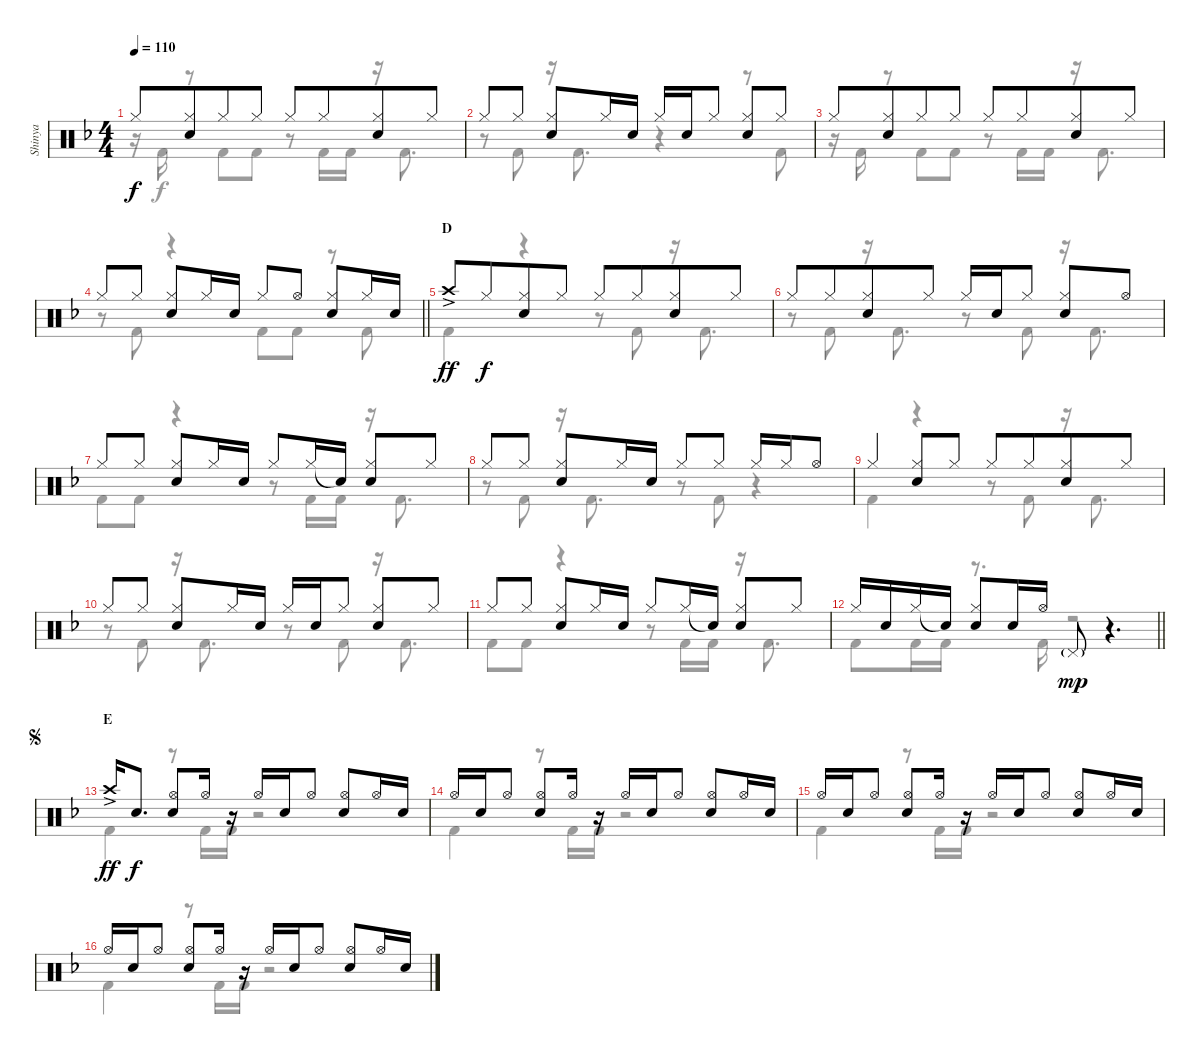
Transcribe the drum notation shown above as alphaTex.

\track ("Shinya" "Shinya") {instrument percussion}
\staff {score}
\articulation defaults
\voice
\ts (4 4)
\tempo 110
\clef neutral
\ks dminor "Hi-Hat (closed)".8{dy f}
("Hi-Hat (closed)" "Snare (hit) 2").8{beam merge} "Hi-Hat (closed)".8 "Hi-Hat (closed)".8 "Hi-Hat (closed)".8 "Hi-Hat (closed)".8{beam merge} ("Hi-Hat (closed)" "Snare (hit) 2").8 "Hi-Hat (closed)".8 |
"Hi-Hat (closed)".8 "Hi-Hat (closed)".8 ("Hi-Hat (closed)" "Snare (hit) 2").8 "Hi-Hat (closed)".16 "Snare (hit) 2".16 "Hi-Hat (closed)".16 "Snare (hit) 2".16 "Hi-Hat (closed)".8 ("Hi-Hat (closed)" "Snare (hit) 2").8 "Hi-Hat (closed)".8 |
"Hi-Hat (closed)".8 ("Hi-Hat (closed)" "Snare (hit) 2").8{beam merge} "Hi-Hat (closed)".8 "Hi-Hat (closed)".8 "Hi-Hat (closed)".8 "Hi-Hat (closed)".8{beam merge} ("Hi-Hat (closed)" "Snare (hit) 2").8 "Hi-Hat (closed)".8 |
\barLineRight lightlight "Hi-Hat (closed)".8 "Hi-Hat (closed)".8
("Hi-Hat (closed)" "Snare (hit) 2").8 "Hi-Hat (closed)".16 "Snare (hit) 2".16 "Hi-Hat (closed)".8 "Hi-Hat (open)".8 ("Hi-Hat (closed)" "Snare (hit) 2").8 "Hi-Hat (closed)".16 "Snare (hit) 2".16 |
\section ("" "D")
"Crash high (hit)"{ac}.8{dy ff} "Hi-Hat (closed)".8{dy f beam merge} ("Hi-Hat (closed)" "Snare (hit) 2").8 "Hi-Hat (closed)".8 "Hi-Hat (closed)".8 "Hi-Hat (closed)".8{beam merge} ("Hi-Hat (closed)" "Snare (hit) 2").8 "Hi-Hat (closed)".8 |
"Hi-Hat (closed)".8 "Hi-Hat (closed)".8{beam merge} ("Hi-Hat (closed)" "Snare (hit) 2").8 "Hi-Hat (closed)".8 "Hi-Hat (closed)".16 "Snare (hit) 2".16 "Hi-Hat (closed)".8 ("Hi-Hat (closed)" "Snare (hit) 2").8 "Hi-Hat (open)".8 |
"Hi-Hat (closed)".8 "Hi-Hat (closed)".8 ("Hi-Hat (closed)" "Snare (hit) 2").8 "Hi-Hat (closed)".16 "Snare (hit) 2".16 "Hi-Hat (closed)".8 "Hi-Hat (closed)".16 "Snare (hit)"{t}.16 ("Hi-Hat (closed)" "Snare (hit) 2").8 "Hi-Hat (closed)".8 |
"Hi-Hat (closed)".8 "Hi-Hat (closed)".8 ("Hi-Hat (closed)" "Snare (hit) 2").8 "Hi-Hat (closed)".16 "Snare (hit) 2".16 "Hi-Hat (closed)".8 "Hi-Hat (closed)".8 "Hi-Hat (closed)".16 "Hi-Hat (closed)".16 "Hi-Hat (open)".8 |
"Hi-Hat (closed)".4 ("Hi-Hat (closed)" "Snare (hit) 2").8 "Hi-Hat (closed)".8 "Hi-Hat (closed)".8 "Hi-Hat (closed)".8{beam merge} ("Hi-Hat (closed)" "Snare (hit) 2").8 "Hi-Hat (closed)".8 |
"Hi-Hat (closed)".8 "Hi-Hat (closed)".8 ("Hi-Hat (closed)" "Snare (hit) 2").8 "Hi-Hat (closed)".16 "Snare (hit) 2".16 "Hi-Hat (closed)".16 "Snare (hit) 2".16 "Hi-Hat (closed)".8 ("Hi-Hat (closed)" "Snare (hit) 2").8 "Hi-Hat (closed)".8 |
"Hi-Hat (closed)".8 "Hi-Hat (closed)".8 ("Hi-Hat (closed)" "Snare (hit) 2").8 "Hi-Hat (closed)".16 "Snare (hit) 2".16 "Hi-Hat (closed)".8 "Hi-Hat (closed)".16 "Snare (hit)"{t}.16 ("Hi-Hat (closed)" "Snare (hit) 2").8 "Hi-Hat (closed)".8 |
\barLineRight lightlight "Hi-Hat (closed)".16 "Snare (hit) 2".16 "Hi-Hat (closed)".16 "Snare (hit)"{t}.16
("Hi-Hat (closed)" "Snare (hit) 2").8 "Snare (hit) 2".16 "Hi-Hat (open)".16 "Pedal Hi-Hat (hit)"{g}.8{dy mp} r.4{d} |
\section ("" "E")
\jump segno "Crash high (hit)"{ac}.16{dy ff} "Snare (hit) 2".8{d dy f}
("Hi-Hat (open)" "Snare (hit) 2").8 "Hi-Hat (open)".16 r.16 "Hi-Hat (open)".16 "Snare (hit) 2".16 "Hi-Hat (open)".8 ("Hi-Hat (open)" "Snare (hit) 2").8 "Hi-Hat (open)".16 "Snare (hit) 2".16 |
"Hi-Hat (open)".16 "Snare (hit) 2".16 "Hi-Hat (open)".8 ("Hi-Hat (open)" "Snare (hit) 2").8 "Hi-Hat (open)".16 r.16 "Hi-Hat (open)".16 "Snare (hit) 2".16 "Hi-Hat (open)".8 ("Hi-Hat (open)" "Snare (hit) 2").8 "Hi-Hat (open)".16 "Snare (hit) 2".16 |
"Hi-Hat (open)".16 "Snare (hit) 2".16 "Hi-Hat (open)".8 ("Hi-Hat (open)" "Snare (hit) 2").8 "Hi-Hat (open)".16 r.16 "Hi-Hat (open)".16 "Snare (hit) 2".16 "Hi-Hat (open)".8 ("Hi-Hat (open)" "Snare (hit) 2").8 "Hi-Hat (open)".16 "Snare (hit) 2".16 |
"Hi-Hat (open)".16 "Snare (hit) 2".16 "Hi-Hat (open)".8 ("Hi-Hat (open)" "Snare (hit) 2").8 "Hi-Hat (open)".16 r.16 "Hi-Hat (open)".16 "Snare (hit) 2".16 "Hi-Hat (open)".8 ("Hi-Hat (open)" "Snare (hit) 2").8 "Hi-Hat (open)".16 "Snare (hit) 2".16
\voice
\clef neutral
\ottava regular
\simile none
\ks dminor
r.16{dy f} "Kick (hit) 2".16 r.8 "Kick (hit) 2".8 "Kick (hit) 2".8 r.8 "Kick (hit) 2".16 "Kick (hit) 2".16 r.16 "Kick (hit) 2".8{d} |
r.8 "Kick (hit) 2".8 r.16 "Kick (hit) 2".8{d} r.4 r.8 "Kick (hit) 2".8 |
r.16 "Kick (hit) 2".16 r.8 "Kick (hit) 2".8 "Kick (hit) 2".8 r.8 "Kick (hit) 2".16 "Kick (hit) 2".16 r.16 "Kick (hit) 2".8{d} |
\barLineRight lightlight
r.8 "Kick (hit) 2".8 r.4 "Kick (hit) 2".8 "Kick (hit) 2".8 r.8 "Kick (hit) 2".8 |
"Kick (hit) 2".4 r.4 r.8 "Kick (hit) 2".8 r.16 "Kick (hit) 2".8{d} |
r.8 "Kick (hit) 2".8 r.16 "Kick (hit) 2".8{d} r.8 "Kick (hit) 2".8 r.16 "Kick (hit) 2".8{d} |
"Kick (hit) 2".8 "Kick (hit) 2".8 r.4 r.8 "Kick (hit) 2".16 "Kick (hit) 2".16 r.16 "Kick (hit) 2".8{d} |
r.8 "Kick (hit) 2".8 r.16 "Kick (hit) 2".8{d} r.8 "Kick (hit) 2".8 r.4 |
"Kick (hit) 2".4 r.4 r.8 "Kick (hit) 2".8 r.16 "Kick (hit) 2".8{d} |
r.8 "Kick (hit) 2".8 r.16 "Kick (hit) 2".8{d} r.8 "Kick (hit) 2".8 r.16 "Kick (hit) 2".8{d} |
"Kick (hit) 2".8 "Kick (hit) 2".8 r.4 r.8 "Kick (hit) 2".16 "Kick (hit) 2".16 r.16 "Kick (hit) 2".8{d} |
\barLineRight lightlight "Kick (hit) 2".8 "Kick (hit) 2".16 "Kick (hit) 2".16
r.8{d} "Kick (hit) 2".16 r.2 |
"Kick (hit) 2".4 r.8 "Kick (hit) 2".16 "Kick (hit) 2".16 r.2 |
"Kick (hit) 2".4 r.8 "Kick (hit) 2".16 "Kick (hit) 2".16 r.2 |
"Kick (hit) 2".4 r.8 "Kick (hit) 2".16 "Kick (hit) 2".16 r.2 |
"Kick (hit) 2".4 r.8 "Kick (hit) 2".16 "Kick (hit) 2".16 r.2
